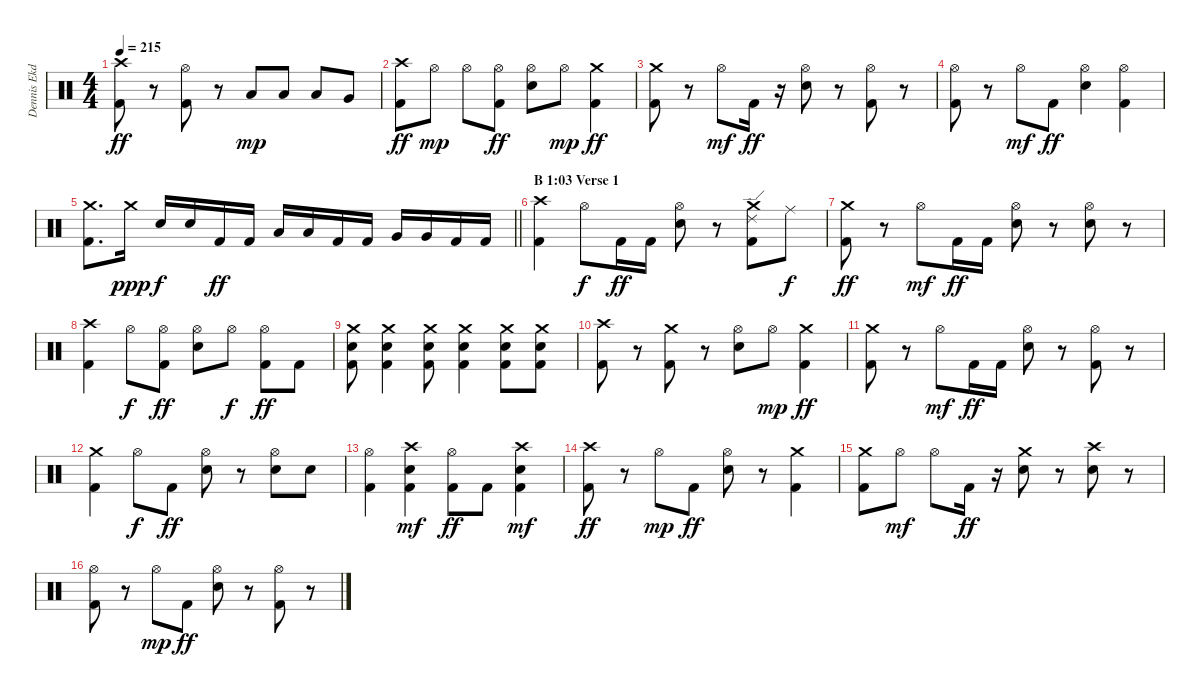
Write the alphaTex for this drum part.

\track ("Dennis Ekdahl      (Drums)" "Dennis Ekd") {instrument percussion}
\staff {score}
\articulation defaults
\ts (4 4)
\tempo 215
\clef neutral
\ks c
("Crash high (hit)" "Kick (hit) 2").8{dy ff} r.8 ("Hi-Hat (open)" "Kick (hit) 2").8 r.8 "Low Tom (hit)".8{dy mp} "Low Tom (hit)".8 "Low Tom (hit)".8 "Very Low Tom (hit)".8 |
("Crash high (hit)" "Kick (hit) 2").8{dy ff} "Hi-Hat (open)".8{dy mp} "Hi-Hat (open)".8 ("Hi-Hat (open)" "Kick (hit) 2").8{dy ff} ("Hi-Hat (open)" "Electric Snare (hit)").8 "Hi-Hat (open)".8{dy mp} ("Crash medium (hit)" "Kick (hit) 2").4{dy ff} |
("Crash medium (hit)" "Kick (hit) 2").8 r.8 "Hi-Hat (open)".8{dy mf} "Kick (hit) 2".16{dy ff} r.16 ("Hi-Hat (open)" "Electric Snare (hit)").8 r.8 ("Hi-Hat (open)" "Kick (hit) 2").8 r.8 |
("Hi-Hat (open)" "Kick (hit) 2").8 r.8 "Hi-Hat (open)".8{dy mf} "Kick (hit) 2".8{dy ff} ("Hi-Hat (open)" "Electric Snare (hit)").4 ("Hi-Hat (open)" "Kick (hit) 2").4 |
\barLineRight lightlight
("Crash medium (hit)" "Kick (hit) 2").8{d} "Crash medium (hit)".16{dy ppp} "Electric Snare (hit)".16{dy f} "Electric Snare (hit)".16 "Kick (hit) 2".16{dy ff} "Kick (hit) 2".16 "Low Tom (hit)".16 "Low Tom (hit)".16 "Kick (hit) 2".16 "Kick (hit) 2".16 "Very Low Tom (hit)".16 "Very Low Tom (hit)".16 "Kick (hit) 2".16 "Kick (hit) 2".16 |
\section ("" "B 1:03 Verse 1 ")
("Crash high (hit)" "Kick (hit) 2").4 "Hi-Hat (open)".8{dy f} "Kick (hit) 2".16{dy ff} "Kick (hit) 2".16 ("Hi-Hat (open)" "Electric Snare (hit)").8 r.8 ("Crash medium (hit)" "Ride (edge) 2" "Kick (hit) 2").8 "Ride (middle)".8{dy f} |
("Crash medium (hit)" "Kick (hit) 2").8{dy ff} r.8 "Hi-Hat (open)".8{dy mf} "Kick (hit) 2".16{dy ff} "Kick (hit) 2".16 ("Hi-Hat (open)" "Electric Snare (hit)").8 r.8 ("Hi-Hat (open)" "Electric Snare (hit)").8 r.8 |
("Crash high (hit)" "Kick (hit) 2").4 "Hi-Hat (open)".8{dy f} ("Hi-Hat (open)" "Kick (hit) 2").8{dy ff} ("Hi-Hat (open)" "Electric Snare (hit)").8 "Hi-Hat (open)".8{dy f} ("Hi-Hat (open)" "Kick (hit) 2").8{dy ff} "Kick (hit) 2".8 |
("Crash medium (hit)" "Electric Snare (hit)" "Kick (hit) 2").8 ("Crash medium (hit)" "Electric Snare (hit)" "Kick (hit) 2").4 ("Crash medium (hit)" "Electric Snare (hit)" "Kick (hit) 2").8 ("Crash medium (hit)" "Electric Snare (hit)" "Kick (hit) 2").4 ("Crash medium (hit)" "Electric Snare (hit)" "Kick (hit) 2").8 ("Crash medium (hit)" "Electric Snare (hit)" "Kick (hit) 2").8 |
("Crash high (hit)" "Kick (hit) 2").8 r.8 ("Crash medium (hit)" "Kick (hit) 2").8 r.8 ("Hi-Hat (open)" "Electric Snare (hit)").8 "Hi-Hat (open)".8{dy mp} ("Crash medium (hit)" "Kick (hit) 2").4{dy ff} |
("Crash medium (hit)" "Kick (hit) 2").8 r.8 "Hi-Hat (open)".8{dy mf} "Kick (hit) 2".16{dy ff} "Kick (hit) 2".16 ("Hi-Hat (open)" "Electric Snare (hit)").8 r.8 ("Hi-Hat (open)" "Kick (hit) 2").8 r.8 |
("Crash medium (hit)" "Kick (hit) 2").4 "Hi-Hat (open)".8{dy f} "Kick (hit) 2".8{dy ff} ("Hi-Hat (open)" "Electric Snare (hit)").8 r.8 ("Hi-Hat (open)" "Electric Snare (hit)").8 "Electric Snare (hit)".8 |
("Hi-Hat (open)" "Kick (hit) 2").4 ("Crash high (hit)" "Electric Snare (hit)" "Kick (hit) 2").4{dy mf} ("Hi-Hat (open)" "Kick (hit) 2").8{dy ff} "Kick (hit) 2".8 ("Crash high (hit)" "Electric Snare (hit)" "Kick (hit) 2").4{dy mf} |
("Crash high (hit)" "Kick (hit) 2").8{dy ff} r.8 "Hi-Hat (open)".8{dy mp} "Kick (hit) 2".8{dy ff} ("Hi-Hat (open)" "Electric Snare (hit)").8 r.8 ("Crash medium (hit)" "Kick (hit) 2").4 |
("Crash medium (hit)" "Kick (hit) 2").8 "Hi-Hat (open)".8{dy mf} "Hi-Hat (open)".8 "Kick (hit) 2".16{dy ff} r.16 ("Crash medium (hit)" "Electric Snare (hit)").8 r.8 ("Crash high (hit)" "Electric Snare (hit)").8 r.8 |
("Hi-Hat (open)" "Kick (hit) 2").8 r.8 "Hi-Hat (open)".8{dy mp} "Kick (hit) 2".8{dy ff} ("Hi-Hat (open)" "Electric Snare (hit)").8 r.8 ("Hi-Hat (open)" "Kick (hit) 2").8 r.8
